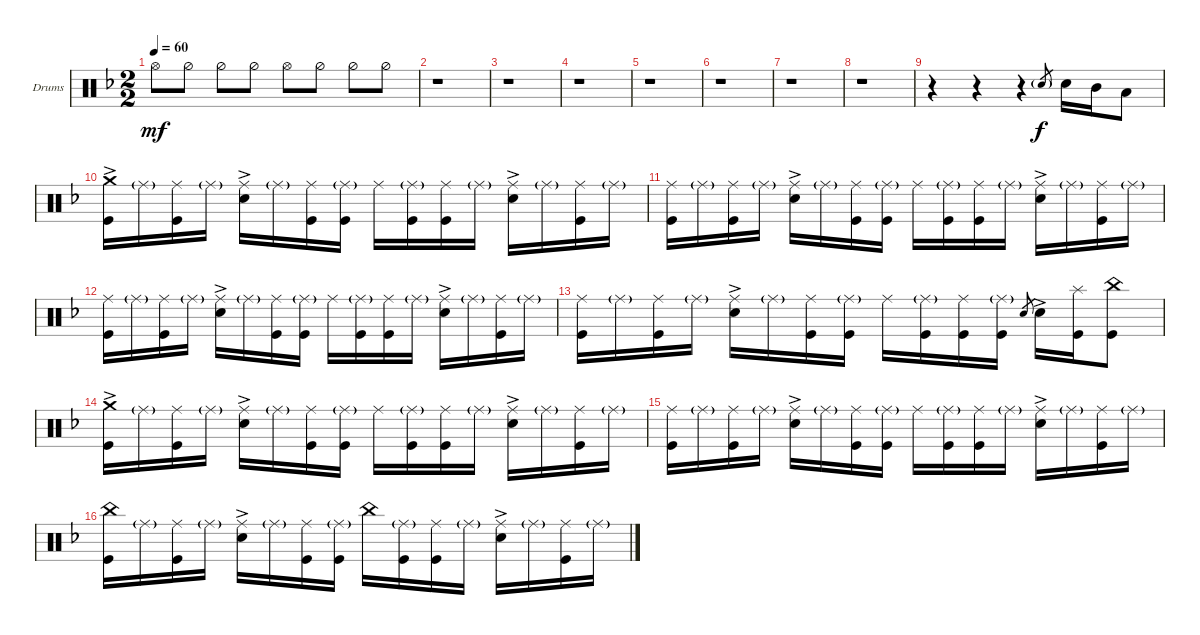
\bracketExtendMode groupsimilarinstruments
\firstSystemTrackNameOrientation horizontal
\otherSystemsTrackNameOrientation horizontal
\track ("Drumkit" "Drums") {instrument percussion}
\staff {score}
\articulation defaults
\ts (2 2)
\tempo 60
\clef neutral
\ks dminor "Hi-Hat (open)".8{dy mf} "Hi-Hat (half)".8 "Hi-Hat (half)".8 "Hi-Hat (half)".8 "Hi-Hat (open)".8 "Hi-Hat (half)".8 "Hi-Hat (half)".8 "Hi-Hat (half)".8
|
r.1 |
r.1 |
r.1 |
r.1 |
r.1 |
r.1 |
r.1 |
r.4 r.4 r.4 "Snare (hit) 2"{g}.8{gr dy f} "Snare (hit) 2".16 "Mid Tom (hit)".16 "Low Tom (hit)".8 |
("Kick (hit)" "Crash medium (hit)"{ac}).16 "Ride (middle)"{g}.16 ("Ride (middle)" "Kick (hit)").16 "Ride (middle)"{g}.16 ("Ride (middle)" "Snare (hit) 2"{ac}).16 "Ride (middle)"{g}.16 ("Ride (middle)" "Kick (hit)").16 ("Ride (middle)"{g} "Kick (hit)").16 "Ride (middle)".16 ("Ride (middle)"{g} "Kick (hit)").16 ("Ride (middle)" "Kick (hit)").16 "Ride (middle)"{g}.16 ("Ride (middle)" "Snare (hit) 2"{ac}).16 "Ride (middle)"{g}.16 ("Ride (middle)" "Kick (hit)").16 "Ride (middle)"{g}.16 |
("Ride (middle)" "Kick (hit)").16 "Ride (middle)"{g}.16 ("Ride (middle)" "Kick (hit)").16 "Ride (middle)"{g}.16 ("Ride (middle)" "Snare (hit) 2"{ac}).16 "Ride (middle)"{g}.16 ("Ride (middle)" "Kick (hit)").16 ("Ride (middle)"{g} "Kick (hit)").16 "Ride (middle)".16 ("Ride (middle)"{g} "Kick (hit)").16 ("Ride (middle)" "Kick (hit)").16 "Ride (middle)"{g}.16 ("Ride (middle)" "Snare (hit) 2"{ac}).16 "Ride (middle)"{g}.16 ("Ride (middle)" "Kick (hit)").16 "Ride (middle)"{g}.16 |
("Ride (middle)" "Kick (hit)").16 "Ride (middle)"{g}.16 ("Ride (middle)" "Kick (hit)").16 "Ride (middle)"{g}.16 ("Ride (middle)" "Snare (hit) 2"{ac}).16 "Ride (middle)"{g}.16 ("Ride (middle)" "Kick (hit)").16 ("Ride (middle)"{g} "Kick (hit)").16 "Ride (middle)".16 ("Ride (middle)"{g} "Kick (hit)").16 ("Ride (middle)" "Kick (hit)").16 "Ride (middle)"{g}.16 ("Ride (middle)" "Snare (hit) 2"{ac}).16 "Ride (middle)"{g}.16 ("Ride (middle)" "Kick (hit)").16 "Ride (middle)"{g}.16 |
("Ride (middle)" "Kick (hit)").16 "Ride (middle)"{g}.16 ("Ride (middle)" "Kick (hit)").16 "Ride (middle)"{g}.16 ("Ride (middle)" "Snare (hit) 2"{ac}).16 "Ride (middle)"{g}.16 ("Ride (middle)" "Kick (hit)").16 ("Ride (middle)"{g} "Kick (hit)").16 "Ride (middle)".16 ("Ride (middle)"{g} "Kick (hit)").16 ("Ride (middle)" "Kick (hit)").16 ("Ride (middle)"{g} "Kick (hit)").16 "Snare (hit) 2".8{gr} "Snare (hit) 2"{ac}.16 ("Kick (hit)" "Splash (hit)").16 ("Kick (hit)" "China (hit)").8 |
("Kick (hit)" "Crash medium (hit)"{ac}).16 "Ride (middle)"{g}.16 ("Ride (middle)" "Kick (hit)").16 "Ride (middle)"{g}.16 ("Ride (middle)" "Snare (hit) 2"{ac}).16 "Ride (middle)"{g}.16 ("Ride (middle)" "Kick (hit)").16 ("Ride (middle)"{g} "Kick (hit)").16 "Ride (middle)".16 ("Ride (middle)"{g} "Kick (hit)").16 ("Ride (middle)" "Kick (hit)").16 "Ride (middle)"{g}.16 ("Ride (middle)" "Snare (hit) 2"{ac}).16 "Ride (middle)"{g}.16 ("Ride (middle)" "Kick (hit)").16 "Ride (middle)"{g}.16 |
("Ride (middle)" "Kick (hit)").16 "Ride (middle)"{g}.16 ("Ride (middle)" "Kick (hit)").16 "Ride (middle)"{g}.16 ("Ride (middle)" "Snare (hit) 2"{ac}).16 "Ride (middle)"{g}.16 ("Ride (middle)" "Kick (hit)").16 ("Ride (middle)"{g} "Kick (hit)").16 "Ride (middle)".16 ("Ride (middle)"{g} "Kick (hit)").16 ("Ride (middle)" "Kick (hit)").16 "Ride (middle)"{g}.16 ("Ride (middle)" "Snare (hit) 2"{ac}).16 "Ride (middle)"{g}.16 ("Ride (middle)" "Kick (hit)").16 "Ride (middle)"{g}.16 |
("Kick (hit)" "China (hit)").16 "Ride (middle)"{g}.16 ("Ride (middle)" "Kick (hit)").16 "Ride (middle)"{g}.16 ("Ride (middle)" "Snare (hit) 2"{ac}).16 "Ride (middle)"{g}.16 ("Ride (middle)" "Kick (hit)").16 ("Ride (middle)"{g} "Kick (hit)").16 "China (hit)".16 ("Ride (middle)"{g} "Kick (hit)").16 ("Ride (middle)" "Kick (hit)").16 "Ride (middle)"{g}.16 ("Ride (middle)" "Snare (hit) 2"{ac}).16 "Ride (middle)"{g}.16 ("Ride (middle)" "Kick (hit)").16 "Ride (middle)"{g}.16
